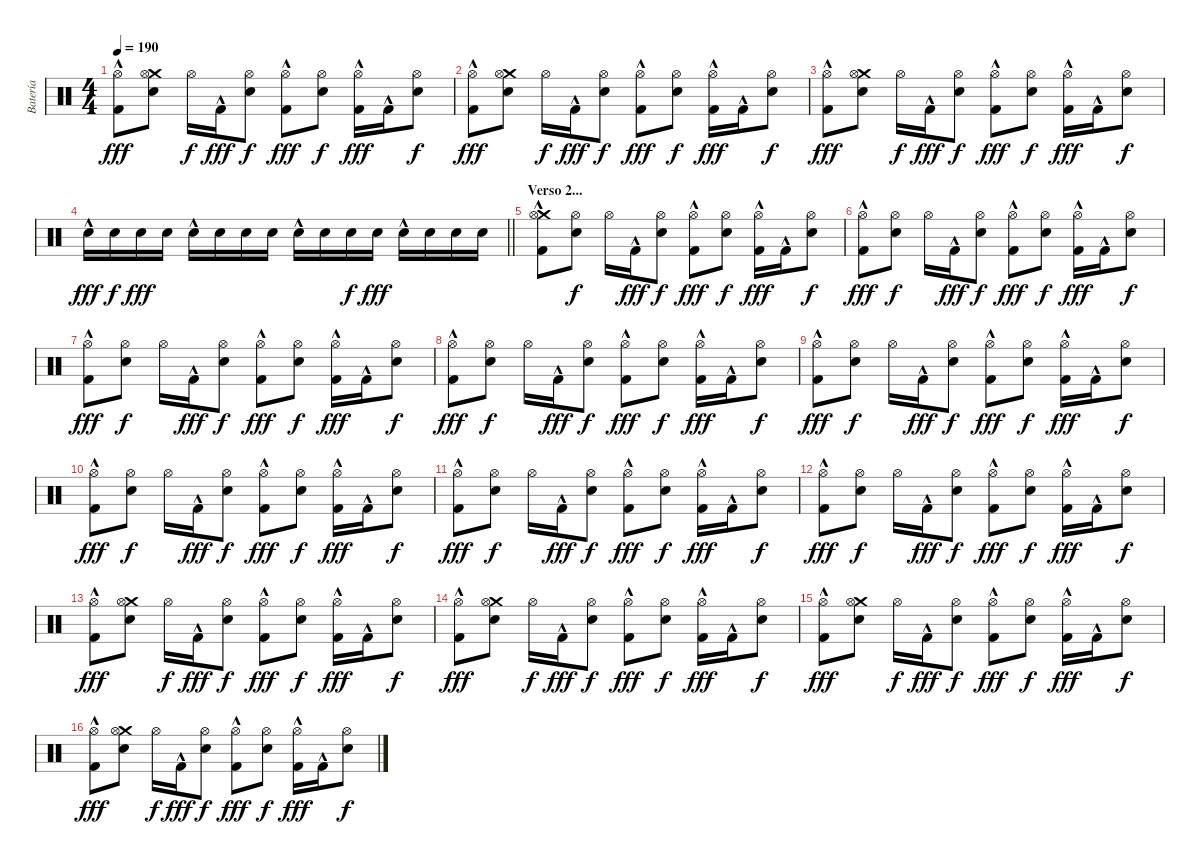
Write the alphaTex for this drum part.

\track ("Batería" "Batería") {instrument percussion}
\staff {score}
\articulation defaults
\ts (4 4)
\tempo 190
\clef neutral
\ks c
("Hi-Hat (open)" "Kick (hit) 2"{hac}).8{dy fff} ("Crash medium (hit)" "Snare (hit) 2" "Hi-Hat (open)").8 "Hi-Hat (open)".16{dy f} "Kick (hit) 2"{hac}.16{dy fff} ("Snare (hit) 2" "Hi-Hat (open)").8{dy f} ("Hi-Hat (open)" "Kick (hit) 2"{hac}).8{dy fff} ("Snare (hit) 2" "Hi-Hat (open)").8{dy f} ("Hi-Hat (open)" "Kick (hit) 2"{hac}).16{dy fff} "Kick (hit) 2"{hac}.16 ("Snare (hit) 2" "Hi-Hat (open)").8{dy f} |
("Hi-Hat (open)" "Kick (hit) 2"{hac}).8{dy fff} ("Crash medium (hit)" "Snare (hit) 2" "Hi-Hat (open)").8 "Hi-Hat (open)".16{dy f} "Kick (hit) 2"{hac}.16{dy fff} ("Snare (hit) 2" "Hi-Hat (open)").8{dy f} ("Hi-Hat (open)" "Kick (hit) 2"{hac}).8{dy fff} ("Snare (hit) 2" "Hi-Hat (open)").8{dy f} ("Hi-Hat (open)" "Kick (hit) 2"{hac}).16{dy fff} "Kick (hit) 2"{hac}.16 ("Snare (hit) 2" "Hi-Hat (open)").8{dy f} |
("Hi-Hat (open)" "Kick (hit) 2"{hac}).8{dy fff} ("Crash medium (hit)" "Snare (hit) 2" "Hi-Hat (open)").8 "Hi-Hat (open)".16{dy f} "Kick (hit) 2"{hac}.16{dy fff} ("Snare (hit) 2" "Hi-Hat (open)").8{dy f} ("Hi-Hat (open)" "Kick (hit) 2"{hac}).8{dy fff} ("Snare (hit) 2" "Hi-Hat (open)").8{dy f} ("Hi-Hat (open)" "Kick (hit) 2"{hac}).16{dy fff} "Kick (hit) 2"{hac}.16 ("Snare (hit) 2" "Hi-Hat (open)").8{dy f} |
\barLineRight lightlight "Snare (hit) 2"{hac}.16{dy fff} "Snare (hit) 2".16{dy f} "Snare (hit) 2".16{dy fff} "Snare (hit) 2".16 "Snare (hit) 2"{hac}.16 "Snare (hit) 2".16 "Snare (hit) 2".16 "Snare (hit) 2".16 "Snare (hit) 2"{hac}.16 "Snare (hit) 2".16 "Snare (hit) 2".16{dy f} "Snare (hit) 2".16{dy fff} "Snare (hit) 2"{hac}.16 "Snare (hit) 2".16 "Snare (hit) 2".16 "Snare (hit) 2".16
|
\section ("" "Verso 2...")
("Crash medium (hit)" "Hi-Hat (open)" "Kick (hit) 2"{hac}).8 ("Snare (hit) 2" "Hi-Hat (open)").8{dy f} "Hi-Hat (open)".16 "Kick (hit) 2"{hac}.16{dy fff} ("Snare (hit) 2" "Hi-Hat (open)").8{dy f} ("Hi-Hat (open)" "Kick (hit) 2"{hac}).8{dy fff} ("Snare (hit) 2" "Hi-Hat (open)").8{dy f} ("Hi-Hat (open)" "Kick (hit) 2"{hac}).16{dy fff} "Kick (hit) 2"{hac}.16 ("Snare (hit) 2" "Hi-Hat (open)").8{dy f} |
("Hi-Hat (open)" "Kick (hit) 2"{hac}).8{dy fff} ("Snare (hit) 2" "Hi-Hat (open)").8{dy f} "Hi-Hat (open)".16 "Kick (hit) 2"{hac}.16{dy fff} ("Snare (hit) 2" "Hi-Hat (open)").8{dy f} ("Hi-Hat (open)" "Kick (hit) 2"{hac}).8{dy fff} ("Snare (hit) 2" "Hi-Hat (open)").8{dy f} ("Hi-Hat (open)" "Kick (hit) 2"{hac}).16{dy fff} "Kick (hit) 2"{hac}.16 ("Snare (hit) 2" "Hi-Hat (open)").8{dy f} |
("Hi-Hat (open)" "Kick (hit) 2"{hac}).8{dy fff} ("Snare (hit) 2" "Hi-Hat (open)").8{dy f} "Hi-Hat (open)".16 "Kick (hit) 2"{hac}.16{dy fff} ("Snare (hit) 2" "Hi-Hat (open)").8{dy f} ("Hi-Hat (open)" "Kick (hit) 2"{hac}).8{dy fff} ("Snare (hit) 2" "Hi-Hat (open)").8{dy f} ("Hi-Hat (open)" "Kick (hit) 2"{hac}).16{dy fff} "Kick (hit) 2"{hac}.16 ("Snare (hit) 2" "Hi-Hat (open)").8{dy f} |
("Hi-Hat (open)" "Kick (hit) 2"{hac}).8{dy fff} ("Snare (hit) 2" "Hi-Hat (open)").8{dy f} "Hi-Hat (open)".16 "Kick (hit) 2"{hac}.16{dy fff} ("Snare (hit) 2" "Hi-Hat (open)").8{dy f} ("Hi-Hat (open)" "Kick (hit) 2"{hac}).8{dy fff} ("Snare (hit) 2" "Hi-Hat (open)").8{dy f} ("Hi-Hat (open)" "Kick (hit) 2"{hac}).16{dy fff} "Kick (hit) 2"{hac}.16 ("Snare (hit) 2" "Hi-Hat (open)").8{dy f} |
("Hi-Hat (open)" "Kick (hit) 2"{hac}).8{dy fff} ("Snare (hit) 2" "Hi-Hat (open)").8{dy f} "Hi-Hat (open)".16 "Kick (hit) 2"{hac}.16{dy fff} ("Snare (hit) 2" "Hi-Hat (open)").8{dy f} ("Hi-Hat (open)" "Kick (hit) 2"{hac}).8{dy fff} ("Snare (hit) 2" "Hi-Hat (open)").8{dy f} ("Hi-Hat (open)" "Kick (hit) 2"{hac}).16{dy fff} "Kick (hit) 2"{hac}.16 ("Snare (hit) 2" "Hi-Hat (open)").8{dy f} |
("Hi-Hat (open)" "Kick (hit) 2"{hac}).8{dy fff} ("Snare (hit) 2" "Hi-Hat (open)").8{dy f} "Hi-Hat (open)".16 "Kick (hit) 2"{hac}.16{dy fff} ("Snare (hit) 2" "Hi-Hat (open)").8{dy f} ("Hi-Hat (open)" "Kick (hit) 2"{hac}).8{dy fff} ("Snare (hit) 2" "Hi-Hat (open)").8{dy f} ("Hi-Hat (open)" "Kick (hit) 2"{hac}).16{dy fff} "Kick (hit) 2"{hac}.16 ("Snare (hit) 2" "Hi-Hat (open)").8{dy f} |
("Hi-Hat (open)" "Kick (hit) 2"{hac}).8{dy fff} ("Snare (hit) 2" "Hi-Hat (open)").8{dy f} "Hi-Hat (open)".16 "Kick (hit) 2"{hac}.16{dy fff} ("Snare (hit) 2" "Hi-Hat (open)").8{dy f} ("Hi-Hat (open)" "Kick (hit) 2"{hac}).8{dy fff} ("Snare (hit) 2" "Hi-Hat (open)").8{dy f} ("Hi-Hat (open)" "Kick (hit) 2"{hac}).16{dy fff} "Kick (hit) 2"{hac}.16 ("Snare (hit) 2" "Hi-Hat (open)").8{dy f} |
("Hi-Hat (open)" "Kick (hit) 2"{hac}).8{dy fff} ("Snare (hit) 2" "Hi-Hat (open)").8{dy f} "Hi-Hat (open)".16 "Kick (hit) 2"{hac}.16{dy fff} ("Snare (hit) 2" "Hi-Hat (open)").8{dy f} ("Hi-Hat (open)" "Kick (hit) 2"{hac}).8{dy fff} ("Snare (hit) 2" "Hi-Hat (open)").8{dy f} ("Hi-Hat (open)" "Kick (hit) 2"{hac}).16{dy fff} "Kick (hit) 2"{hac}.16 ("Snare (hit) 2" "Hi-Hat (open)").8{dy f} |
("Hi-Hat (open)" "Kick (hit) 2"{hac}).8{dy fff} ("Crash medium (hit)" "Snare (hit) 2" "Hi-Hat (open)").8 "Hi-Hat (open)".16{dy f} "Kick (hit) 2"{hac}.16{dy fff} ("Snare (hit) 2" "Hi-Hat (open)").8{dy f} ("Hi-Hat (open)" "Kick (hit) 2"{hac}).8{dy fff} ("Snare (hit) 2" "Hi-Hat (open)").8{dy f} ("Hi-Hat (open)" "Kick (hit) 2"{hac}).16{dy fff} "Kick (hit) 2"{hac}.16 ("Snare (hit) 2" "Hi-Hat (open)").8{dy f} |
("Hi-Hat (open)" "Kick (hit) 2"{hac}).8{dy fff} ("Crash medium (hit)" "Snare (hit) 2" "Hi-Hat (open)").8 "Hi-Hat (open)".16{dy f} "Kick (hit) 2"{hac}.16{dy fff} ("Snare (hit) 2" "Hi-Hat (open)").8{dy f} ("Hi-Hat (open)" "Kick (hit) 2"{hac}).8{dy fff} ("Snare (hit) 2" "Hi-Hat (open)").8{dy f} ("Hi-Hat (open)" "Kick (hit) 2"{hac}).16{dy fff} "Kick (hit) 2"{hac}.16 ("Snare (hit) 2" "Hi-Hat (open)").8{dy f} |
("Hi-Hat (open)" "Kick (hit) 2"{hac}).8{dy fff} ("Crash medium (hit)" "Snare (hit) 2" "Hi-Hat (open)").8 "Hi-Hat (open)".16{dy f} "Kick (hit) 2"{hac}.16{dy fff} ("Snare (hit) 2" "Hi-Hat (open)").8{dy f} ("Hi-Hat (open)" "Kick (hit) 2"{hac}).8{dy fff} ("Snare (hit) 2" "Hi-Hat (open)").8{dy f} ("Hi-Hat (open)" "Kick (hit) 2"{hac}).16{dy fff} "Kick (hit) 2"{hac}.16 ("Snare (hit) 2" "Hi-Hat (open)").8{dy f} |
("Hi-Hat (open)" "Kick (hit) 2"{hac}).8{dy fff} ("Crash medium (hit)" "Snare (hit) 2" "Hi-Hat (open)").8 "Hi-Hat (open)".16{dy f} "Kick (hit) 2"{hac}.16{dy fff} ("Snare (hit) 2" "Hi-Hat (open)").8{dy f} ("Hi-Hat (open)" "Kick (hit) 2"{hac}).8{dy fff} ("Snare (hit) 2" "Hi-Hat (open)").8{dy f} ("Hi-Hat (open)" "Kick (hit) 2"{hac}).16{dy fff} "Kick (hit) 2"{hac}.16 ("Snare (hit) 2" "Hi-Hat (open)").8{dy f}
